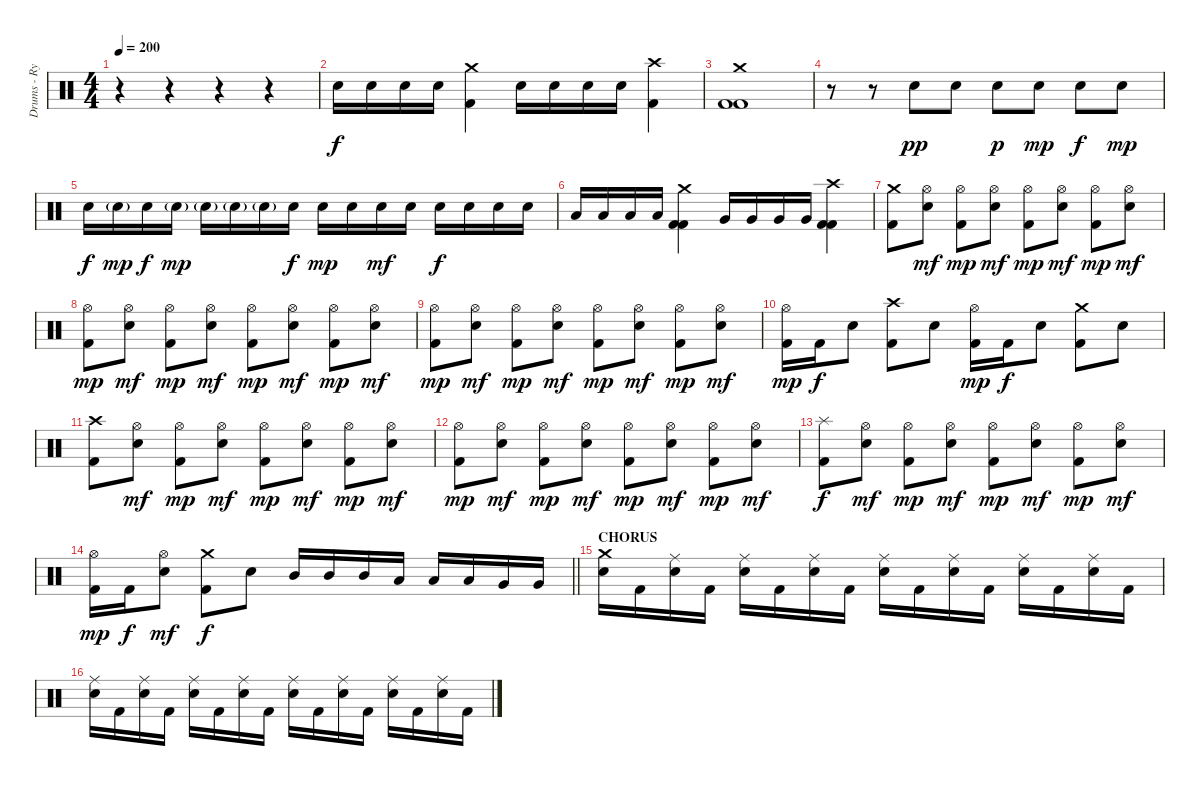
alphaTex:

\track ("Drums - Ryan Bates" "Drums - Ry") {instrument percussion}
\staff {score}
\articulation defaults
\ts (4 4)
\tempo 200
\clef neutral
\ks c
r.4{dy f} r.4 r.4 r.4 |
"Snare (hit) 2".16 "Snare (hit) 2".16 "Snare (hit) 2".16 "Snare (hit) 2".16 ("Crash medium (hit)" "Kick (hit) 2").4 "Snare (hit) 2".16 "Snare (hit) 2".16 "Snare (hit) 2".16 "Snare (hit) 2".16 ("Crash high (hit)" "Kick (hit) 2").4 |
("Crash medium (hit)" "Kick (hit) 2" "Kick (hit) 2").1 |
r.8 r.8 "Snare (hit) 2".8{dy pp} "Snare (hit) 2".8 "Snare (hit) 2".8{dy p} "Snare (hit) 2".8{dy mp} "Snare (hit) 2".8{dy f} "Snare (hit) 2".8{dy mp} |
"Snare (hit) 2".16{dy f} "Snare (hit) 2"{g}.16{dy mp} "Snare (hit) 2".16{dy f} "Snare (hit) 2"{g}.16{dy mp} "Snare (hit) 2"{g}.16 "Snare (hit) 2"{g}.16 "Snare (hit) 2"{g}.16 "Snare (hit) 2".16{dy f} "Snare (hit) 2".16{dy mp} "Snare (hit) 2".16 "Snare (hit) 2".16{dy mf} "Snare (hit) 2".16 "Snare (hit) 2".16{dy f} "Snare (hit) 2".16 "Snare (hit) 2".16 "Snare (hit) 2".16 |
"Low Tom (hit)".16 "Low Tom (hit)".16 "Low Tom (hit)".16 "Low Tom (hit)".16 ("Crash medium (hit)" "Kick (hit) 2" "Kick (hit) 2").4 "Very Low Tom (hit)".16 "Very Low Tom (hit)".16 "Very Low Tom (hit)".16 "Very Low Tom (hit)".16 ("Crash high (hit)" "Kick (hit) 2" "Kick (hit) 2").4 |
("Crash medium (hit)" "Kick (hit) 2").8 ("Hi-Hat (open)" "Snare (hit) 2").8{dy mf} ("Hi-Hat (open)" "Kick (hit) 2").8{dy mp} ("Hi-Hat (open)" "Snare (hit) 2").8{dy mf} ("Hi-Hat (open)" "Kick (hit) 2").8{dy mp} ("Hi-Hat (open)" "Snare (hit) 2").8{dy mf} ("Hi-Hat (open)" "Kick (hit) 2").8{dy mp} ("Hi-Hat (open)" "Snare (hit) 2").8{dy mf} |
("Hi-Hat (open)" "Kick (hit) 2").8{dy mp} ("Hi-Hat (open)" "Snare (hit) 2").8{dy mf} ("Hi-Hat (open)" "Kick (hit) 2").8{dy mp} ("Hi-Hat (open)" "Snare (hit) 2").8{dy mf} ("Hi-Hat (open)" "Kick (hit) 2").8{dy mp} ("Hi-Hat (open)" "Snare (hit) 2").8{dy mf} ("Hi-Hat (open)" "Kick (hit) 2").8{dy mp} ("Hi-Hat (open)" "Snare (hit) 2").8{dy mf} |
("Hi-Hat (open)" "Kick (hit) 2").8{dy mp} ("Hi-Hat (open)" "Snare (hit) 2").8{dy mf} ("Hi-Hat (open)" "Kick (hit) 2").8{dy mp} ("Hi-Hat (open)" "Snare (hit) 2").8{dy mf} ("Hi-Hat (open)" "Kick (hit) 2").8{dy mp} ("Hi-Hat (open)" "Snare (hit) 2").8{dy mf} ("Hi-Hat (open)" "Kick (hit) 2").8{dy mp} ("Hi-Hat (open)" "Snare (hit) 2").8{dy mf} |
("Hi-Hat (open)" "Kick (hit) 2").16{dy mp} "Kick (hit) 2".16{dy f} "Snare (hit) 2".8 ("Crash high (hit)" "Kick (hit) 2").8 "Snare (hit) 2".8 ("Hi-Hat (open)" "Kick (hit) 2").16{dy mp} "Kick (hit) 2".16{dy f} "Snare (hit) 2".8 ("Crash medium (hit)" "Kick (hit) 2").8 "Snare (hit) 2".8 |
("Crash high (hit)" "Kick (hit) 2").8 ("Hi-Hat (open)" "Snare (hit) 2").8{dy mf} ("Hi-Hat (open)" "Kick (hit) 2").8{dy mp} ("Hi-Hat (open)" "Snare (hit) 2").8{dy mf} ("Hi-Hat (open)" "Kick (hit) 2").8{dy mp} ("Hi-Hat (open)" "Snare (hit) 2").8{dy mf} ("Hi-Hat (open)" "Kick (hit) 2").8{dy mp} ("Hi-Hat (open)" "Snare (hit) 2").8{dy mf} |
("Hi-Hat (open)" "Kick (hit) 2").8{dy mp} ("Hi-Hat (open)" "Snare (hit) 2").8{dy mf} ("Hi-Hat (open)" "Kick (hit) 2").8{dy mp} ("Hi-Hat (open)" "Snare (hit) 2").8{dy mf} ("Hi-Hat (open)" "Kick (hit) 2").8{dy mp} ("Hi-Hat (open)" "Snare (hit) 2").8{dy mf} ("Hi-Hat (open)" "Kick (hit) 2").8{dy mp} ("Hi-Hat (open)" "Snare (hit) 2").8{dy mf} |
("Splash (hit)" "Kick (hit) 2").8{dy f} ("Hi-Hat (open)" "Snare (hit) 2").8{dy mf} ("Hi-Hat (open)" "Kick (hit) 2").8{dy mp} ("Hi-Hat (open)" "Snare (hit) 2").8{dy mf} ("Hi-Hat (open)" "Kick (hit) 2").8{dy mp} ("Hi-Hat (open)" "Snare (hit) 2").8{dy mf} ("Hi-Hat (open)" "Kick (hit) 2").8{dy mp} ("Hi-Hat (open)" "Snare (hit) 2").8{dy mf} |
\barLineRight lightlight
("Hi-Hat (open)" "Kick (hit) 2").16{dy mp} "Kick (hit) 2".16{dy f} ("Hi-Hat (open)" "Snare (hit) 2").8{dy mf} ("Crash medium (hit)" "Kick (hit) 2").8{dy f} "Snare (hit) 2".8 "Mid Tom (hit)".16 "Mid Tom (hit)".16 "Mid Tom (hit)".16 "Low Tom (hit)".16 "Low Tom (hit)".16 "Low Tom (hit)".16 "Very Low Tom (hit)".16 "Very Low Tom (hit)".16 |
\section ("" "CHORUS")
("Crash medium (hit)" "Snare (hit) 2").16 "Kick (hit) 2".16 ("Ride (middle)" "Snare (hit) 2").16 "Kick (hit) 2".16 ("Ride (middle)" "Snare (hit) 2").16 "Kick (hit) 2".16 ("Ride (middle)" "Snare (hit) 2").16 "Kick (hit) 2".16 ("Ride (middle)" "Snare (hit) 2").16 "Kick (hit) 2".16 ("Ride (middle)" "Snare (hit) 2").16 "Kick (hit) 2".16 ("Ride (middle)" "Snare (hit) 2").16 "Kick (hit) 2".16 ("Ride (middle)" "Snare (hit) 2").16 "Kick (hit) 2".16 |
("Ride (middle)" "Snare (hit) 2").16 "Kick (hit) 2".16 ("Ride (middle)" "Snare (hit) 2").16 "Kick (hit) 2".16 ("Ride (middle)" "Snare (hit) 2").16 "Kick (hit) 2".16 ("Ride (middle)" "Snare (hit) 2").16 "Kick (hit) 2".16 ("Ride (middle)" "Snare (hit) 2").16 "Kick (hit) 2".16 ("Ride (middle)" "Snare (hit) 2").16 "Kick (hit) 2".16 ("Ride (middle)" "Snare (hit) 2").16 "Kick (hit) 2".16 ("Ride (middle)" "Snare (hit) 2").16 "Kick (hit) 2".16
